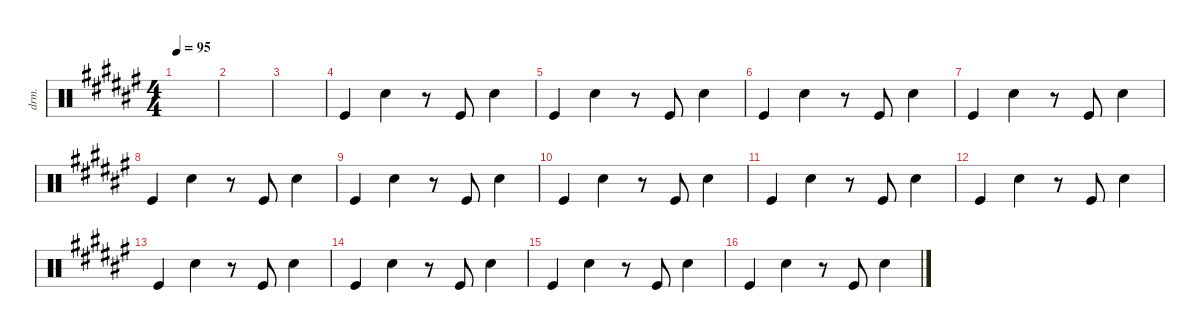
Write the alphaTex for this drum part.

\defaultSystemsLayout 4
\hideDynamics
\bracketExtendMode nobrackets
\otherSystemsTrackNameOrientation horizontal
\track ("Drumkit" "drm.") {instrument percussion}
\staff {score}
\articulation defaults
\ts (4 4)
\scale
1.08979
\tempo 95
\accidentals auto
\clef neutral
\ottava regular
\simile none
\ks f#
|
\scale
0.973579 |
\scale
0.973579 |
\scale
0.963053 "Kick (hit)".4 "Snare (hit) 2".4 r.8 "Kick (hit)".8 "Snare (hit) 2".4 |
\scale
1.09505 "Kick (hit)".4 "Snare (hit) 2".4 r.8 "Kick (hit)".8 "Snare (hit) 2".4 |
\scale
0.968316 "Kick (hit)".4 "Snare (hit) 2".4 r.8 "Kick (hit)".8 "Snare (hit) 2".4 |
\scale
0.968316 "Kick (hit)".4 "Snare (hit) 2".4 r.8 "Kick (hit)".8 "Snare (hit) 2".4 |
\scale
0.968316 "Kick (hit)".4 "Snare (hit) 2".4 r.8 "Kick (hit)".8 "Snare (hit) 2".4 |
\scale
1.09242 "Kick (hit)".4 "Snare (hit) 2".4 r.8 "Kick (hit)".8 "Snare (hit) 2".4 |
\scale
0.965684 "Kick (hit)".4 "Snare (hit) 2".4 r.8 "Kick (hit)".8 "Snare (hit) 2".4 |
\scale
0.976211 "Kick (hit)".4 "Snare (hit) 2".4 r.8 "Kick (hit)".8 "Snare (hit) 2".4 |
\scale
0.965684 "Kick (hit)".4 "Snare (hit) 2".4 r.8 "Kick (hit)".8 "Snare (hit) 2".4 |
\scale
1.09505 "Kick (hit)".4 "Snare (hit) 2".4 r.8 "Kick (hit)".8 "Snare (hit) 2".4 |
\scale
0.968316 "Kick (hit)".4 "Snare (hit) 2".4 r.8 "Kick (hit)".8 "Snare (hit) 2".4 |
\scale
0.968316 "Kick (hit)".4 "Snare (hit) 2".4 r.8 "Kick (hit)".8 "Snare (hit) 2".4 |
\scale
0.968316 "Kick (hit)".4 "Snare (hit) 2".4 r.8 "Kick (hit)".8 "Snare (hit) 2".4
